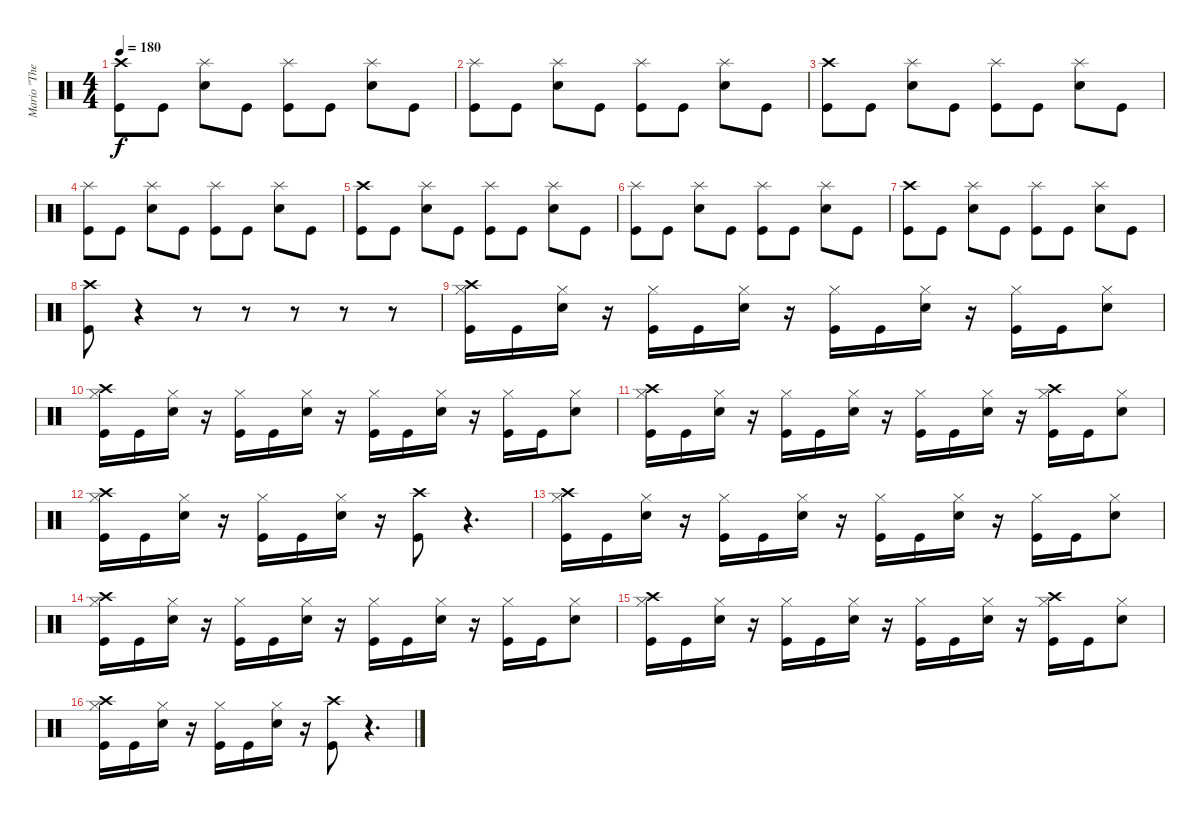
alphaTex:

\track ("Mario \"The dremmel\" Hirt" "Mario \"The") {instrument percussion}
\staff {score}
\articulation defaults
\ts (4 4)
\tempo 180
\clef neutral
\ks c
("Crash high (hit)" "Kick (hit)").8{dy f} "Kick (hit)".8 ("Splash (hit)" "Electric Snare (hit)").8 "Kick (hit)".8 ("Splash (hit)" "Kick (hit)").8 "Kick (hit)".8 ("Splash (hit)" "Electric Snare (hit)").8 "Kick (hit)".8 |
("Splash (hit)" "Kick (hit)").8 "Kick (hit)".8 ("Splash (hit)" "Electric Snare (hit)").8 "Kick (hit)".8 ("Splash (hit)" "Kick (hit)").8 "Kick (hit)".8 ("Splash (hit)" "Electric Snare (hit)").8 "Kick (hit)".8 |
("Crash high (hit)" "Kick (hit)").8 "Kick (hit)".8 ("Splash (hit)" "Electric Snare (hit)").8 "Kick (hit)".8 ("Splash (hit)" "Kick (hit)").8 "Kick (hit)".8 ("Splash (hit)" "Electric Snare (hit)").8 "Kick (hit)".8 |
("Splash (hit)" "Kick (hit)").8 "Kick (hit)".8 ("Splash (hit)" "Electric Snare (hit)").8 "Kick (hit)".8 ("Splash (hit)" "Kick (hit)").8 "Kick (hit)".8 ("Splash (hit)" "Electric Snare (hit)").8 "Kick (hit)".8 |
("Crash high (hit)" "Kick (hit)").8 "Kick (hit)".8 ("Splash (hit)" "Electric Snare (hit)").8 "Kick (hit)".8 ("Splash (hit)" "Kick (hit)").8 "Kick (hit)".8 ("Splash (hit)" "Electric Snare (hit)").8 "Kick (hit)".8 |
("Splash (hit)" "Kick (hit)").8 "Kick (hit)".8 ("Splash (hit)" "Electric Snare (hit)").8 "Kick (hit)".8 ("Splash (hit)" "Kick (hit)").8 "Kick (hit)".8 ("Splash (hit)" "Electric Snare (hit)").8 "Kick (hit)".8 |
("Crash high (hit)" "Kick (hit)").8 "Kick (hit)".8 ("Splash (hit)" "Electric Snare (hit)").8 "Kick (hit)".8 ("Splash (hit)" "Kick (hit)").8 "Kick (hit)".8 ("Splash (hit)" "Electric Snare (hit)").8 "Kick (hit)".8 |
("Crash high (hit)" "Kick (hit)").8 r.4 r.8 r.8 r.8 r.8 r.8 |
("Crash high (hit)" "Hi-Hat (closed)" "Kick (hit)").16 "Kick (hit)".16 ("Hi-Hat (closed)" "Electric Snare (hit)").16 r.16 ("Hi-Hat (closed)" "Kick (hit)").16 "Kick (hit)".16 ("Hi-Hat (closed)" "Electric Snare (hit)").16 r.16 ("Hi-Hat (closed)" "Kick (hit)").16 "Kick (hit)".16 ("Hi-Hat (closed)" "Electric Snare (hit)").16 r.16 ("Hi-Hat (closed)" "Kick (hit)").16 "Kick (hit)".16 ("Hi-Hat (closed)" "Electric Snare (hit)").8 |
("Crash high (hit)" "Hi-Hat (closed)" "Kick (hit)").16 "Kick (hit)".16 ("Hi-Hat (closed)" "Electric Snare (hit)").16 r.16 ("Hi-Hat (closed)" "Kick (hit)").16 "Kick (hit)".16 ("Hi-Hat (closed)" "Electric Snare (hit)").16 r.16 ("Hi-Hat (closed)" "Kick (hit)").16 "Kick (hit)".16 ("Hi-Hat (closed)" "Electric Snare (hit)").16 r.16 ("Hi-Hat (closed)" "Kick (hit)").16 "Kick (hit)".16 ("Hi-Hat (closed)" "Electric Snare (hit)").8 |
("Crash high (hit)" "Hi-Hat (closed)" "Kick (hit)").16 "Kick (hit)".16 ("Hi-Hat (closed)" "Electric Snare (hit)").16 r.16 ("Hi-Hat (closed)" "Kick (hit)").16 "Kick (hit)".16 ("Hi-Hat (closed)" "Electric Snare (hit)").16 r.16 ("Hi-Hat (closed)" "Kick (hit)").16 "Kick (hit)".16 ("Hi-Hat (closed)" "Electric Snare (hit)").16 r.16 ("Crash high (hit)" "Hi-Hat (closed)" "Kick (hit)").16 "Kick (hit)".16 ("Hi-Hat (closed)" "Electric Snare (hit)").8 |
("Crash high (hit)" "Hi-Hat (closed)" "Kick (hit)").16 "Kick (hit)".16 ("Hi-Hat (closed)" "Electric Snare (hit)").16 r.16 ("Hi-Hat (closed)" "Kick (hit)").16 "Kick (hit)".16 ("Hi-Hat (closed)" "Electric Snare (hit)").16 r.16 ("Crash high (hit)" "Kick (hit)").8 r.4{d} |
("Crash high (hit)" "Hi-Hat (closed)" "Kick (hit)").16 "Kick (hit)".16 ("Hi-Hat (closed)" "Electric Snare (hit)").16 r.16 ("Hi-Hat (closed)" "Kick (hit)").16 "Kick (hit)".16 ("Hi-Hat (closed)" "Electric Snare (hit)").16 r.16 ("Hi-Hat (closed)" "Kick (hit)").16 "Kick (hit)".16 ("Hi-Hat (closed)" "Electric Snare (hit)").16 r.16 ("Hi-Hat (closed)" "Kick (hit)").16 "Kick (hit)".16 ("Hi-Hat (closed)" "Electric Snare (hit)").8 |
("Crash high (hit)" "Hi-Hat (closed)" "Kick (hit)").16 "Kick (hit)".16 ("Hi-Hat (closed)" "Electric Snare (hit)").16 r.16 ("Hi-Hat (closed)" "Kick (hit)").16 "Kick (hit)".16 ("Hi-Hat (closed)" "Electric Snare (hit)").16 r.16 ("Hi-Hat (closed)" "Kick (hit)").16 "Kick (hit)".16 ("Hi-Hat (closed)" "Electric Snare (hit)").16 r.16 ("Hi-Hat (closed)" "Kick (hit)").16 "Kick (hit)".16 ("Hi-Hat (closed)" "Electric Snare (hit)").8 |
("Crash high (hit)" "Hi-Hat (closed)" "Kick (hit)").16 "Kick (hit)".16 ("Hi-Hat (closed)" "Electric Snare (hit)").16 r.16 ("Hi-Hat (closed)" "Kick (hit)").16 "Kick (hit)".16 ("Hi-Hat (closed)" "Electric Snare (hit)").16 r.16 ("Hi-Hat (closed)" "Kick (hit)").16 "Kick (hit)".16 ("Hi-Hat (closed)" "Electric Snare (hit)").16 r.16 ("Crash high (hit)" "Hi-Hat (closed)" "Kick (hit)").16 "Kick (hit)".16 ("Hi-Hat (closed)" "Electric Snare (hit)").8 |
("Crash high (hit)" "Hi-Hat (closed)" "Kick (hit)").16 "Kick (hit)".16 ("Hi-Hat (closed)" "Electric Snare (hit)").16 r.16 ("Hi-Hat (closed)" "Kick (hit)").16 "Kick (hit)".16 ("Hi-Hat (closed)" "Electric Snare (hit)").16 r.16 ("Crash high (hit)" "Kick (hit)").8 r.4{d}
